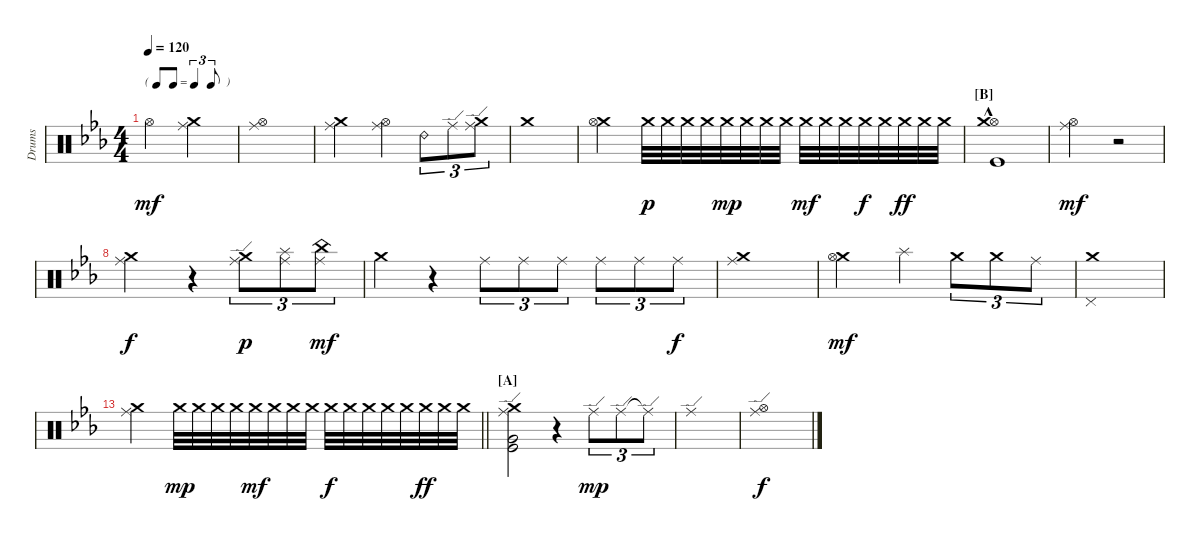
\bracketExtendMode nobrackets
\otherSystemsTrackNameOrientation horizontal
\defaultBarNumberDisplay FirstOfSystem
\track ("Drumkit" "Drums") {instrument percussion}
\staff {score}
\articulation defaults
\ts (4 4)
\tf triplet8th
\tempo 120
\clef neutral
\ks cminor "Hi-Hat (open)".2{dy mf}
("Ride (middle)" "Crash medium (hit)").2 |
("Ride (middle)" "Hi-Hat (open)").1 |
("Ride (middle)" "Crash medium (hit)").2 ("Ride (middle)" "Hi-Hat (open)").4 "Ride (bell) 2".8{tu (3 2)} "Ride (edge)".8{tu (3 2)} ("Ride (edge)" "Crash medium (hit)").8{tu (3 2)} |
"Crash medium (hit)".1 |
("Crash medium (hit)" "Hi-Hat (open)").2 "Crash medium (hit)".32{dy p} "Crash medium (hit)".32 "Crash medium (hit)".32 "Crash medium (hit)".32 "Crash medium (hit)".32{dy mp} "Crash medium (hit)".32 "Crash medium (hit)".32 "Crash medium (hit)".32 "Crash medium (hit)".32{dy mf} "Crash medium (hit)".32 "Crash medium (hit)".32 "Crash medium (hit)".32{dy f} "Crash medium (hit)".32 "Crash medium (hit)".32{dy ff} "Crash medium (hit)".32 "Crash medium (hit)".32 |
\section ("B" "")
("Kick (hit)" "Hi-Hat (open)" "Crash medium (hit)"{hac}).1 |
("Ride (middle)" "Hi-Hat (open)").2{dy mf} r.2 |
("Ride (middle)" "Crash medium (hit)").2{dy f} r.4 ("Ride (edge)" "Crash medium (hit)").8{tu (3 2) dy p} ("Ride (middle)" "Splash (hit)").8{tu (3 2)} ("Ride (middle)" "China (hit)").8{tu (3 2) dy mf} |
"Crash medium (hit)".4 r.4 "Ride (middle)".8{tu (3 2)} "Ride (middle)".8{tu (3 2)} "Ride (middle)".8{tu (3 2)} "Ride (middle)".8{tu (3 2)} "Ride (middle)".8{tu (3 2)} "Ride (middle)".8{tu (3 2) dy f} |
("Crash medium (hit)" "Ride (middle)").1 |
("Crash medium (hit)" "Hi-Hat (open)").2{dy mf} "Splash (hit)".4 "Crash medium (hit)".8{tu (3 2)} "Crash medium (hit)".8{tu (3 2)} "Ride (middle)".8{tu (3 2)} |
("Crash medium (hit)" "Pedal Hi-Hat (hit)").1 |
\barLineRight lightlight
("Ride (middle)" "Crash medium (hit)").2 "Crash medium (hit)".32{dy mp} "Crash medium (hit)".32 "Crash medium (hit)".32 "Crash medium (hit)".32 "Crash medium (hit)".32{dy mf} "Crash medium (hit)".32 "Crash medium (hit)".32 "Crash medium (hit)".32 "Crash medium (hit)".32{dy f} "Crash medium (hit)".32 "Crash medium (hit)".32 "Crash medium (hit)".32 "Crash medium (hit)".32 "Crash medium (hit)".32{dy ff} "Crash medium (hit)".32 "Crash medium (hit)".32 |
\section ("A" "")
("Crash medium (hit)" "Kick (hit)" "Ride (edge)" "Very Low Tom (hit)").2 r.4 "Ride (edge)".8{tu (3 2) dy mp} "Ride (edge)".8{tu (3 2)} "Ride (edge)"{t}.8{tu (3 2)} |
"Ride (edge)".1 |
("Ride (edge)" "Hi-Hat (open)").1{dy f}
